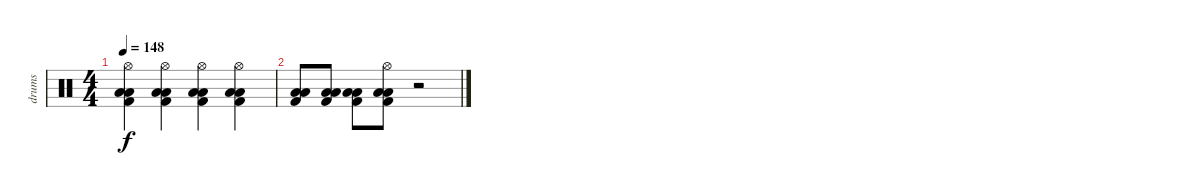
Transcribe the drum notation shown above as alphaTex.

\track ("drums" "drums") {instrument percussion}
\staff {score}
\articulation defaults
\ts (4 4)
\tempo 148
\clef neutral
\ks c
("Hi-Hat (open)" "Low Floor Tom (hit)" "Low Floor Tom (hit)" "Kick (hit) 2").4{dy f} ("Hi-Hat (open)" "Low Floor Tom (hit)" "Low Floor Tom (hit)" "Kick (hit) 2").4 ("Hi-Hat (open)" "Low Floor Tom (hit)" "Low Floor Tom (hit)" "Kick (hit) 2").4 ("Hi-Hat (open)" "Low Floor Tom (hit)" "Low Floor Tom (hit)" "Kick (hit) 2").4 |
("Low Floor Tom (hit)" "Low Floor Tom (hit)" "Kick (hit) 2").8 ("Low Floor Tom (hit)" "Low Floor Tom (hit)" "Kick (hit) 2").8 ("Low Floor Tom (hit)" "Low Floor Tom (hit)" "Kick (hit) 2").8 ("Hi-Hat (open)" "Low Floor Tom (hit)" "Low Floor Tom (hit)" "Kick (hit) 2").8 r.2
